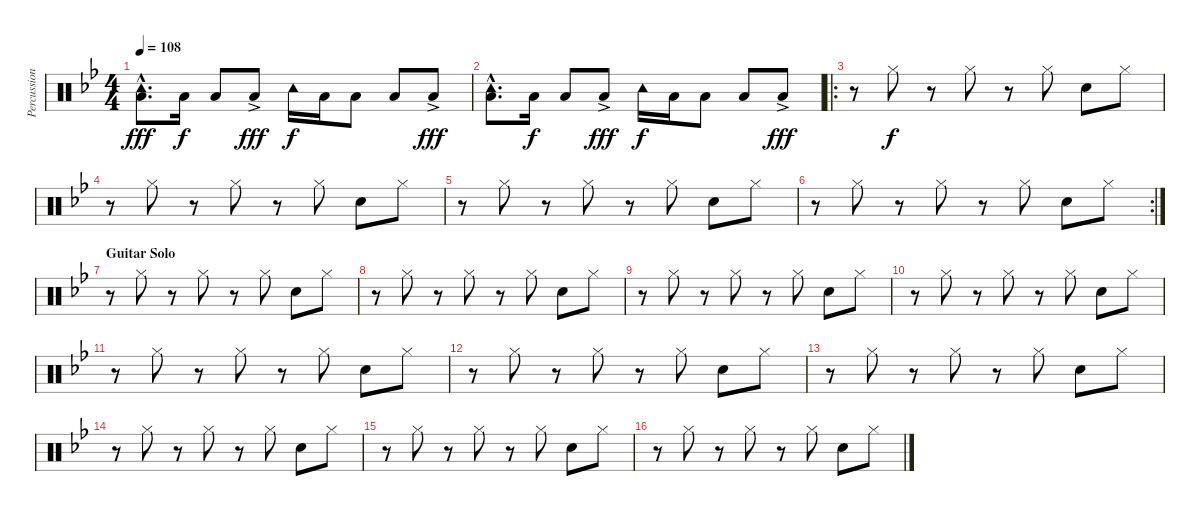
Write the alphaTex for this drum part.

\track ("Percussion" "Percussion") {instrument percussion}
\staff {score}
\articulation defaults
\ts (4 4)
\tempo 108
\clef neutral
\ks bb
("Tambourine (hit)"{hac} "Low Tom (hit)"{hac}).8{d dy fff} "Low Tom (hit)".16{dy f} "Low Tom (hit)".8 "Low Tom (hit)"{ac}.8{dy fff} "Tambourine (hit)".16{dy f} "Low Tom (hit)".16 "Low Tom (hit)".8 "Low Tom (hit)".8 "Low Tom (hit)"{ac}.8{dy fff} |
("Tambourine (hit)"{hac} "Low Tom (hit)"{hac}).8{d} "Low Tom (hit)".16{dy f} "Low Tom (hit)".8 "Low Tom (hit)"{ac}.8{dy fff} "Tambourine (hit)".16{dy f} "Low Tom (hit)".16 "Low Tom (hit)".8 "Low Tom (hit)".8 "Low Tom (hit)"{ac}.8{dy fff} |
\ro
r.8 "Hi-Hat (closed)".8{dy f} r.8 "Hi-Hat (closed)".8 r.8 "Hi-Hat (closed)".8 "Electric Snare (hit)".8 "Hi-Hat (closed)".8 |
r.8 "Hi-Hat (closed)".8 r.8 "Hi-Hat (closed)".8 r.8 "Hi-Hat (closed)".8 "Electric Snare (hit)".8 "Hi-Hat (closed)".8 |
r.8 "Hi-Hat (closed)".8 r.8 "Hi-Hat (closed)".8 r.8 "Hi-Hat (closed)".8 "Electric Snare (hit)".8 "Hi-Hat (closed)".8 |
\rc 2
r.8 "Hi-Hat (closed)".8 r.8 "Hi-Hat (closed)".8 r.8 "Hi-Hat (closed)".8 "Electric Snare (hit)".8 "Hi-Hat (closed)".8 |
\section ("" "Guitar Solo")
r.8 "Hi-Hat (closed)".8 r.8 "Hi-Hat (closed)".8 r.8 "Hi-Hat (closed)".8 "Electric Snare (hit)".8 "Hi-Hat (closed)".8 |
r.8 "Hi-Hat (closed)".8 r.8 "Hi-Hat (closed)".8 r.8 "Hi-Hat (closed)".8 "Electric Snare (hit)".8 "Hi-Hat (closed)".8 |
r.8 "Hi-Hat (closed)".8 r.8 "Hi-Hat (closed)".8 r.8 "Hi-Hat (closed)".8 "Electric Snare (hit)".8 "Hi-Hat (closed)".8 |
r.8 "Hi-Hat (closed)".8 r.8 "Hi-Hat (closed)".8 r.8 "Hi-Hat (closed)".8 "Electric Snare (hit)".8 "Hi-Hat (closed)".8 |
r.8 "Hi-Hat (closed)".8 r.8 "Hi-Hat (closed)".8 r.8 "Hi-Hat (closed)".8 "Electric Snare (hit)".8 "Hi-Hat (closed)".8 |
r.8 "Hi-Hat (closed)".8 r.8 "Hi-Hat (closed)".8 r.8 "Hi-Hat (closed)".8 "Electric Snare (hit)".8 "Hi-Hat (closed)".8 |
r.8 "Hi-Hat (closed)".8 r.8 "Hi-Hat (closed)".8 r.8 "Hi-Hat (closed)".8 "Electric Snare (hit)".8 "Hi-Hat (closed)".8 |
r.8 "Hi-Hat (closed)".8 r.8 "Hi-Hat (closed)".8 r.8 "Hi-Hat (closed)".8 "Electric Snare (hit)".8 "Hi-Hat (closed)".8 |
r.8 "Hi-Hat (closed)".8 r.8 "Hi-Hat (closed)".8 r.8 "Hi-Hat (closed)".8 "Electric Snare (hit)".8 "Hi-Hat (closed)".8 |
r.8 "Hi-Hat (closed)".8 r.8 "Hi-Hat (closed)".8 r.8 "Hi-Hat (closed)".8 "Electric Snare (hit)".8 "Hi-Hat (closed)".8
